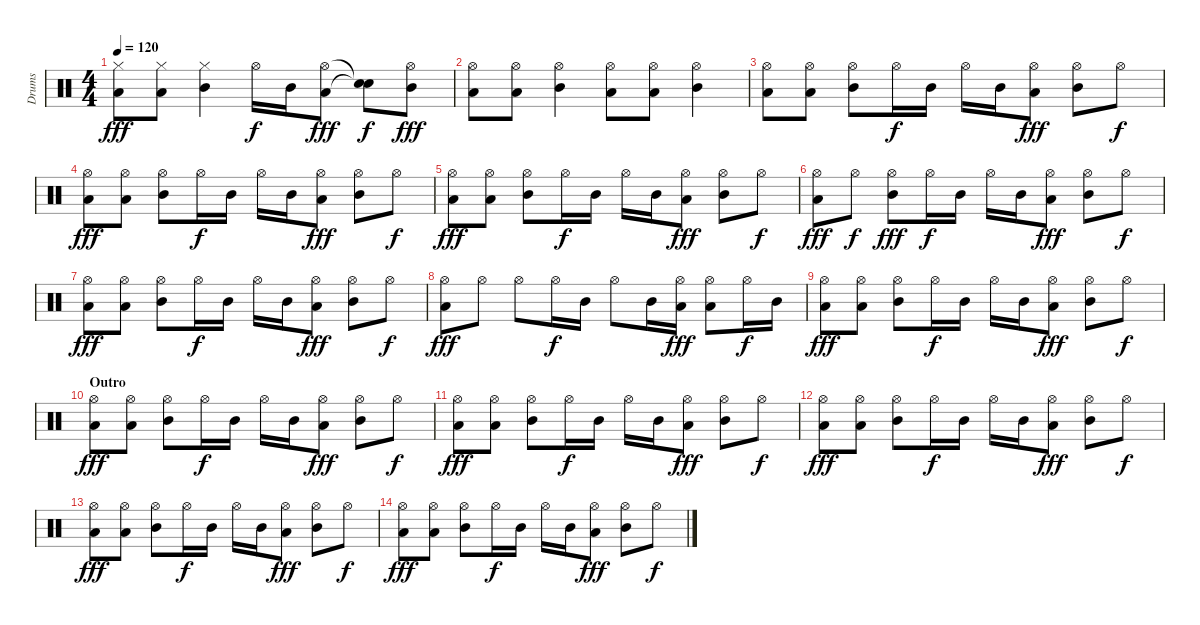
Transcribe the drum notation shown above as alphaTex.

\track ("Drums" "Drums") {instrument percussion}
\staff {score}
\articulation defaults
\ts (4 4)
\tempo 120
\clef neutral
\ks c
("Hi-Hat (closed)" "Low Floor Tom (hit)").8{dy fff} ("Hi-Hat (closed)" "Low Floor Tom (hit)").8 ("Hi-Hat (closed)" "Mid Tom (hit)").4 "Hi-Hat (open)".16{dy f} "Mid Tom (hit)".16 ("Hi-Hat (open)" "Low Floor Tom (hit)").8{dy fff} ("Snare (hit)"{t} "Snare (hit)"{t}).8{dy f} ("Hi-Hat (open)" "Mid Tom (hit)").8{dy fff} |
("Hi-Hat (open)" "Low Floor Tom (hit)").8 ("Hi-Hat (open)" "Low Floor Tom (hit)").8 ("Hi-Hat (open)" "Mid Tom (hit)").4 ("Hi-Hat (open)" "Low Floor Tom (hit)").8 ("Hi-Hat (open)" "Low Floor Tom (hit)").8 ("Hi-Hat (open)" "Mid Tom (hit)").4 |
("Hi-Hat (open)" "Low Floor Tom (hit)").8 ("Hi-Hat (open)" "Low Floor Tom (hit)").8 ("Hi-Hat (open)" "Mid Tom (hit)").8 "Hi-Hat (open)".16{dy f} "Mid Tom (hit)".16 "Hi-Hat (open)".16 "Mid Tom (hit)".16 ("Hi-Hat (open)" "Low Floor Tom (hit)").8{dy fff} ("Hi-Hat (open)" "Mid Tom (hit)").8 "Hi-Hat (open)".8{dy f} |
("Hi-Hat (open)" "Low Floor Tom (hit)").8{dy fff} ("Hi-Hat (open)" "Low Floor Tom (hit)").8 ("Hi-Hat (open)" "Mid Tom (hit)").8 "Hi-Hat (open)".16{dy f} "Mid Tom (hit)".16 "Hi-Hat (open)".16 "Mid Tom (hit)".16 ("Hi-Hat (open)" "Low Floor Tom (hit)").8{dy fff} ("Hi-Hat (open)" "Mid Tom (hit)").8 "Hi-Hat (open)".8{dy f} |
("Hi-Hat (open)" "Low Floor Tom (hit)").8{dy fff} ("Hi-Hat (open)" "Low Floor Tom (hit)").8 ("Hi-Hat (open)" "Mid Tom (hit)").8 "Hi-Hat (open)".16{dy f} "Mid Tom (hit)".16 "Hi-Hat (open)".16 "Mid Tom (hit)".16 ("Hi-Hat (open)" "Low Floor Tom (hit)").8{dy fff} ("Hi-Hat (open)" "Mid Tom (hit)").8 "Hi-Hat (open)".8{dy f} |
("Hi-Hat (open)" "Low Floor Tom (hit)").8{dy fff} "Hi-Hat (open)".8{dy f} ("Hi-Hat (open)" "Mid Tom (hit)").8{dy fff} "Hi-Hat (open)".16{dy f} "Mid Tom (hit)".16 "Hi-Hat (open)".16 "Mid Tom (hit)".16 ("Hi-Hat (open)" "Low Floor Tom (hit)").8{dy fff} ("Hi-Hat (open)" "Mid Tom (hit)").8 "Hi-Hat (open)".8{dy f} |
("Hi-Hat (open)" "Low Floor Tom (hit)").8{dy fff} ("Hi-Hat (open)" "Low Floor Tom (hit)").8 ("Hi-Hat (open)" "Mid Tom (hit)").8 "Hi-Hat (open)".16{dy f} "Mid Tom (hit)".16 "Hi-Hat (open)".16 "Mid Tom (hit)".16 ("Hi-Hat (open)" "Low Floor Tom (hit)").8{dy fff} ("Hi-Hat (open)" "Mid Tom (hit)").8 "Hi-Hat (open)".8{dy f} |
("Hi-Hat (open)" "Low Floor Tom (hit)").8{dy fff} "Hi-Hat (open)".8 "Hi-Hat (open)".8 "Hi-Hat (open)".16{dy f} "Mid Tom (hit)".16 "Hi-Hat (open)".8 "Mid Tom (hit)".16 ("Hi-Hat (open)" "Low Floor Tom (hit)").16{dy fff} ("Hi-Hat (open)" "Low Floor Tom (hit)").8 "Hi-Hat (open)".16{dy f} "Mid Tom (hit)".16 |
("Hi-Hat (open)" "Low Floor Tom (hit)").8{dy fff} ("Hi-Hat (open)" "Low Floor Tom (hit)").8 ("Hi-Hat (open)" "Mid Tom (hit)").8 "Hi-Hat (open)".16{dy f} "Mid Tom (hit)".16 "Hi-Hat (open)".16 "Mid Tom (hit)".16 ("Hi-Hat (open)" "Low Floor Tom (hit)").8{dy fff} ("Hi-Hat (open)" "Mid Tom (hit)").8 "Hi-Hat (open)".8{dy f} |
\section ("" "Outro")
("Hi-Hat (open)" "Low Floor Tom (hit)").8{dy fff} ("Hi-Hat (open)" "Low Floor Tom (hit)").8 ("Hi-Hat (open)" "Mid Tom (hit)").8 "Hi-Hat (open)".16{dy f} "Mid Tom (hit)".16 "Hi-Hat (open)".16 "Mid Tom (hit)".16 ("Hi-Hat (open)" "Low Floor Tom (hit)").8{dy fff} ("Hi-Hat (open)" "Mid Tom (hit)").8 "Hi-Hat (open)".8{dy f} |
("Hi-Hat (open)" "Low Floor Tom (hit)").8{dy fff} ("Hi-Hat (open)" "Low Floor Tom (hit)").8 ("Hi-Hat (open)" "Mid Tom (hit)").8 "Hi-Hat (open)".16{dy f} "Mid Tom (hit)".16 "Hi-Hat (open)".16 "Mid Tom (hit)".16 ("Hi-Hat (open)" "Low Floor Tom (hit)").8{dy fff} ("Hi-Hat (open)" "Mid Tom (hit)").8 "Hi-Hat (open)".8{dy f} |
("Hi-Hat (open)" "Low Floor Tom (hit)").8{dy fff} ("Hi-Hat (open)" "Low Floor Tom (hit)").8 ("Hi-Hat (open)" "Mid Tom (hit)").8 "Hi-Hat (open)".16{dy f} "Mid Tom (hit)".16 "Hi-Hat (open)".16 "Mid Tom (hit)".16 ("Hi-Hat (open)" "Low Floor Tom (hit)").8{dy fff} ("Hi-Hat (open)" "Mid Tom (hit)").8 "Hi-Hat (open)".8{dy f} |
("Hi-Hat (open)" "Low Floor Tom (hit)").8{dy fff} ("Hi-Hat (open)" "Low Floor Tom (hit)").8 ("Hi-Hat (open)" "Mid Tom (hit)").8 "Hi-Hat (open)".16{dy f} "Mid Tom (hit)".16 "Hi-Hat (open)".16 "Mid Tom (hit)".16 ("Hi-Hat (open)" "Low Floor Tom (hit)").8{dy fff} ("Hi-Hat (open)" "Mid Tom (hit)").8 "Hi-Hat (open)".8{dy f} |
("Hi-Hat (open)" "Low Floor Tom (hit)").8{dy fff} ("Hi-Hat (open)" "Low Floor Tom (hit)").8 ("Hi-Hat (open)" "Mid Tom (hit)").8 "Hi-Hat (open)".16{dy f} "Mid Tom (hit)".16 "Hi-Hat (open)".16 "Mid Tom (hit)".16 ("Hi-Hat (open)" "Low Floor Tom (hit)").8{dy fff} ("Hi-Hat (open)" "Mid Tom (hit)").8 "Hi-Hat (open)".8{dy f}
